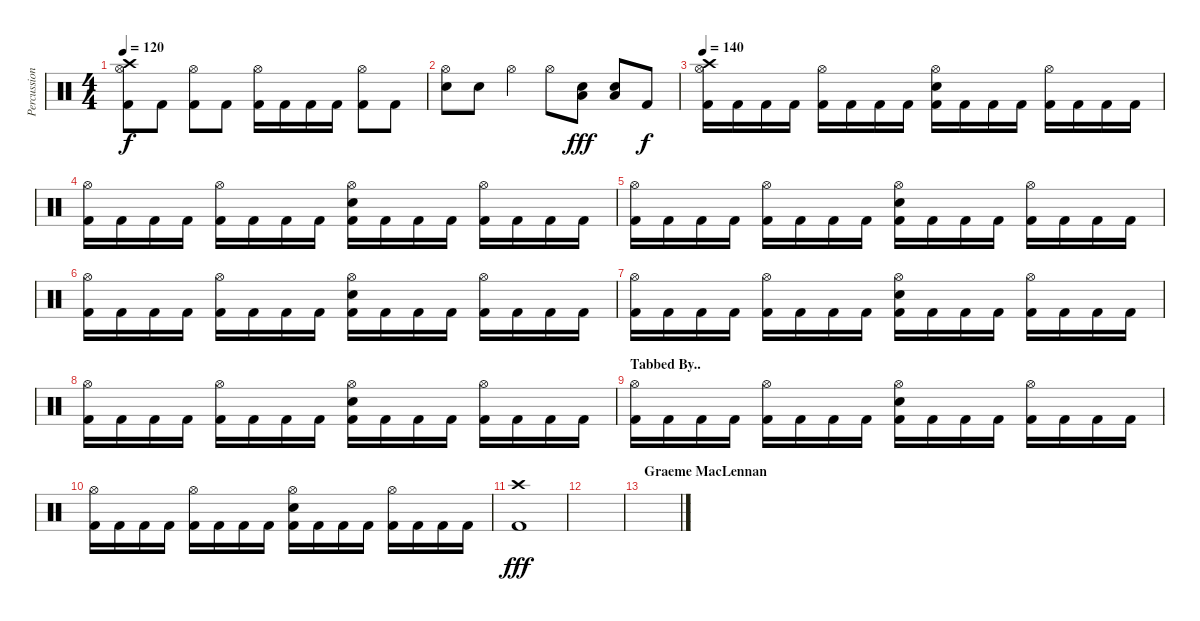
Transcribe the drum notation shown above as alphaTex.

\track ("Percussion" "Percussion") {instrument percussion}
\staff {score}
\articulation defaults
\ts (4 4)
\tempo 120
\clef neutral
\ks c
("Crash high (hit)" "Hi-Hat (open)" "Kick (hit) 2").8{dy f} "Kick (hit) 2".8 ("Hi-Hat (open)" "Kick (hit) 2").8 "Kick (hit) 2".8 ("Hi-Hat (open)" "Kick (hit) 2").16 "Kick (hit) 2".16 "Kick (hit) 2".16 "Kick (hit) 2".16 ("Hi-Hat (open)" "Kick (hit) 2").8 "Kick (hit) 2".8 |
("Hi-Hat (open)" "Electric Snare (hit)").8 "Electric Snare (hit)".8 "Hi-Hat (open)".4 "Hi-Hat (open)".8 ("Electric Snare (hit)" "Low Tom (hit)").8{dy fff} ("Electric Snare (hit)" "Low Tom (hit)").8 "Kick (hit) 2".8{dy f} |
\tempo 140
("Crash high (hit)" "Hi-Hat (open)" "Kick (hit) 2").16 "Kick (hit) 2".16 "Kick (hit) 2".16 "Kick (hit) 2".16 ("Hi-Hat (open)" "Kick (hit) 2").16 "Kick (hit) 2".16 "Kick (hit) 2".16 "Kick (hit) 2".16 ("Hi-Hat (open)" "Electric Snare (hit)" "Kick (hit) 2").16 "Kick (hit) 2".16 "Kick (hit) 2".16 "Kick (hit) 2".16 ("Hi-Hat (open)" "Kick (hit) 2").16 "Kick (hit) 2".16 "Kick (hit) 2".16 "Kick (hit) 2".16 |
("Hi-Hat (open)" "Kick (hit) 2").16 "Kick (hit) 2".16 "Kick (hit) 2".16 "Kick (hit) 2".16 ("Hi-Hat (open)" "Kick (hit) 2").16 "Kick (hit) 2".16 "Kick (hit) 2".16 "Kick (hit) 2".16 ("Hi-Hat (open)" "Electric Snare (hit)" "Kick (hit) 2").16 "Kick (hit) 2".16 "Kick (hit) 2".16 "Kick (hit) 2".16 ("Hi-Hat (open)" "Kick (hit) 2").16 "Kick (hit) 2".16 "Kick (hit) 2".16 "Kick (hit) 2".16 |
("Hi-Hat (open)" "Kick (hit) 2").16 "Kick (hit) 2".16 "Kick (hit) 2".16 "Kick (hit) 2".16 ("Hi-Hat (open)" "Kick (hit) 2").16 "Kick (hit) 2".16 "Kick (hit) 2".16 "Kick (hit) 2".16 ("Hi-Hat (open)" "Electric Snare (hit)" "Kick (hit) 2").16 "Kick (hit) 2".16 "Kick (hit) 2".16 "Kick (hit) 2".16 ("Hi-Hat (open)" "Kick (hit) 2").16 "Kick (hit) 2".16 "Kick (hit) 2".16 "Kick (hit) 2".16 |
("Hi-Hat (open)" "Kick (hit) 2").16 "Kick (hit) 2".16 "Kick (hit) 2".16 "Kick (hit) 2".16 ("Hi-Hat (open)" "Kick (hit) 2").16 "Kick (hit) 2".16 "Kick (hit) 2".16 "Kick (hit) 2".16 ("Hi-Hat (open)" "Electric Snare (hit)" "Kick (hit) 2").16 "Kick (hit) 2".16 "Kick (hit) 2".16 "Kick (hit) 2".16 ("Hi-Hat (open)" "Kick (hit) 2").16 "Kick (hit) 2".16 "Kick (hit) 2".16 "Kick (hit) 2".16 |
("Hi-Hat (open)" "Kick (hit) 2").16 "Kick (hit) 2".16 "Kick (hit) 2".16 "Kick (hit) 2".16 ("Hi-Hat (open)" "Kick (hit) 2").16 "Kick (hit) 2".16 "Kick (hit) 2".16 "Kick (hit) 2".16 ("Hi-Hat (open)" "Electric Snare (hit)" "Kick (hit) 2").16 "Kick (hit) 2".16 "Kick (hit) 2".16 "Kick (hit) 2".16 ("Hi-Hat (open)" "Kick (hit) 2").16 "Kick (hit) 2".16 "Kick (hit) 2".16 "Kick (hit) 2".16 |
("Hi-Hat (open)" "Kick (hit) 2").16 "Kick (hit) 2".16 "Kick (hit) 2".16 "Kick (hit) 2".16 ("Hi-Hat (open)" "Kick (hit) 2").16 "Kick (hit) 2".16 "Kick (hit) 2".16 "Kick (hit) 2".16 ("Hi-Hat (open)" "Electric Snare (hit)" "Kick (hit) 2").16 "Kick (hit) 2".16 "Kick (hit) 2".16 "Kick (hit) 2".16 ("Hi-Hat (open)" "Kick (hit) 2").16 "Kick (hit) 2".16 "Kick (hit) 2".16 "Kick (hit) 2".16 |
\section ("" "Tabbed By..")
("Hi-Hat (open)" "Kick (hit) 2").16 "Kick (hit) 2".16 "Kick (hit) 2".16 "Kick (hit) 2".16 ("Hi-Hat (open)" "Kick (hit) 2").16 "Kick (hit) 2".16 "Kick (hit) 2".16 "Kick (hit) 2".16 ("Hi-Hat (open)" "Electric Snare (hit)" "Kick (hit) 2").16 "Kick (hit) 2".16 "Kick (hit) 2".16 "Kick (hit) 2".16 ("Hi-Hat (open)" "Kick (hit) 2").16 "Kick (hit) 2".16 "Kick (hit) 2".16 "Kick (hit) 2".16 |
("Hi-Hat (open)" "Kick (hit) 2").16 "Kick (hit) 2".16 "Kick (hit) 2".16 "Kick (hit) 2".16 ("Hi-Hat (open)" "Kick (hit) 2").16 "Kick (hit) 2".16 "Kick (hit) 2".16 "Kick (hit) 2".16 ("Hi-Hat (open)" "Electric Snare (hit)" "Kick (hit) 2").16 "Kick (hit) 2".16 "Kick (hit) 2".16 "Kick (hit) 2".16 ("Hi-Hat (open)" "Kick (hit) 2").16 "Kick (hit) 2".16 "Kick (hit) 2".16 "Kick (hit) 2".16 |
("Crash high (hit)" "Kick (hit) 2").1{dy fff} |
|
\section ("" "Graeme MacLennan")
